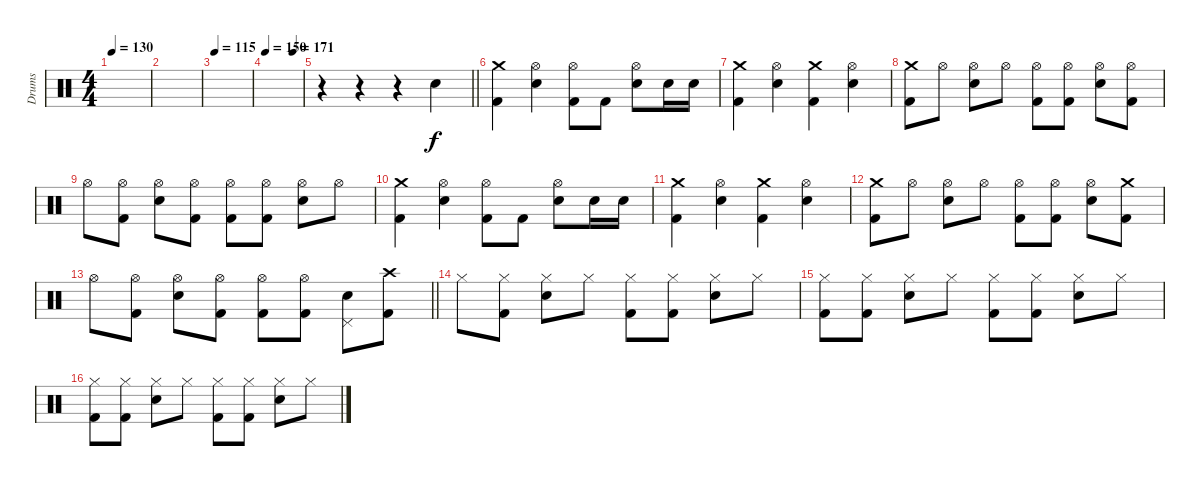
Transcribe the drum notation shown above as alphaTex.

\track ("Drums" "Drums") {instrument percussion}
\staff {score}
\articulation defaults
\ts (4 4)
\tempo 130
\clef neutral
\ks c
|
|
\tempo 115
|
\tempo 150
\tempo (171 0.75)
|
\barLineRight lightlight
r.4 r.4 r.4 "Electric Snare (hit)".4 |
("Crash medium (hit)" "Kick (hit) 2").4 ("Hi-Hat (open)" "Electric Snare (hit)").4 ("Hi-Hat (open)" "Kick (hit) 2").8 "Kick (hit) 2".8 ("Hi-Hat (open)" "Electric Snare (hit)").8 "Electric Snare (hit)".16 "Electric Snare (hit)".16 |
("Crash medium (hit)" "Kick (hit) 2").4 ("Hi-Hat (open)" "Electric Snare (hit)").4 ("Crash medium (hit)" "Kick (hit) 2").4 ("Hi-Hat (open)" "Electric Snare (hit)").4 |
("Crash medium (hit)" "Kick (hit) 2").8 "Hi-Hat (open)".8 ("Hi-Hat (open)" "Electric Snare (hit)").8 "Hi-Hat (open)".8 ("Hi-Hat (open)" "Kick (hit) 2").8 ("Hi-Hat (open)" "Kick (hit) 2").8 ("Hi-Hat (open)" "Electric Snare (hit)").8 ("Hi-Hat (open)" "Kick (hit) 2").8 |
"Hi-Hat (open)".8 ("Hi-Hat (open)" "Kick (hit) 2").8 ("Hi-Hat (open)" "Electric Snare (hit)").8 ("Hi-Hat (open)" "Kick (hit) 2").8 ("Hi-Hat (open)" "Kick (hit) 2").8 ("Hi-Hat (open)" "Kick (hit) 2").8 ("Hi-Hat (open)" "Electric Snare (hit)").8 "Hi-Hat (open)".8 |
("Crash medium (hit)" "Kick (hit) 2").4 ("Hi-Hat (open)" "Electric Snare (hit)").4 ("Hi-Hat (open)" "Kick (hit) 2").8 "Kick (hit) 2".8 ("Hi-Hat (open)" "Electric Snare (hit)").8 "Electric Snare (hit)".16 "Electric Snare (hit)".16 |
("Crash medium (hit)" "Kick (hit) 2").4 ("Hi-Hat (open)" "Electric Snare (hit)").4 ("Crash medium (hit)" "Kick (hit) 2").4 ("Hi-Hat (open)" "Electric Snare (hit)").4 |
("Crash medium (hit)" "Kick (hit) 2").8 "Hi-Hat (open)".8 ("Hi-Hat (open)" "Electric Snare (hit)").8 "Hi-Hat (open)".8 ("Hi-Hat (open)" "Kick (hit) 2").8 ("Hi-Hat (open)" "Kick (hit) 2").8 ("Hi-Hat (open)" "Electric Snare (hit)").8 ("Crash medium (hit)" "Kick (hit) 2").8 |
\barLineRight lightlight "Hi-Hat (open)".8
("Hi-Hat (open)" "Kick (hit) 2").8 ("Hi-Hat (open)" "Electric Snare (hit)").8 ("Hi-Hat (open)" "Kick (hit) 2").8 ("Hi-Hat (open)" "Kick (hit) 2").8 ("Hi-Hat (open)" "Kick (hit) 2").8 ("Pedal Hi-Hat (hit)" "Electric Snare (hit)").8 ("Crash high (hit)" "Kick (hit) 2").8 |
"Hi-Hat (closed)".8 ("Hi-Hat (closed)" "Kick (hit) 2").8 ("Hi-Hat (closed)" "Electric Snare (hit)").8 "Hi-Hat (closed)".8 ("Hi-Hat (closed)" "Kick (hit) 2").8 ("Hi-Hat (closed)" "Kick (hit) 2").8 ("Hi-Hat (closed)" "Electric Snare (hit)").8 "Hi-Hat (closed)".8 |
("Hi-Hat (closed)" "Kick (hit) 2").8 ("Hi-Hat (closed)" "Kick (hit) 2").8 ("Hi-Hat (closed)" "Electric Snare (hit)").8 "Hi-Hat (closed)".8 ("Hi-Hat (closed)" "Kick (hit) 2").8 ("Hi-Hat (closed)" "Kick (hit) 2").8 ("Hi-Hat (closed)" "Electric Snare (hit)").8 "Hi-Hat (closed)".8 |
("Hi-Hat (closed)" "Kick (hit) 2").8 ("Hi-Hat (closed)" "Kick (hit) 2").8 ("Hi-Hat (closed)" "Electric Snare (hit)").8 "Hi-Hat (closed)".8 ("Hi-Hat (closed)" "Kick (hit) 2").8 ("Hi-Hat (closed)" "Kick (hit) 2").8 ("Hi-Hat (closed)" "Electric Snare (hit)").8 "Hi-Hat (closed)".8
